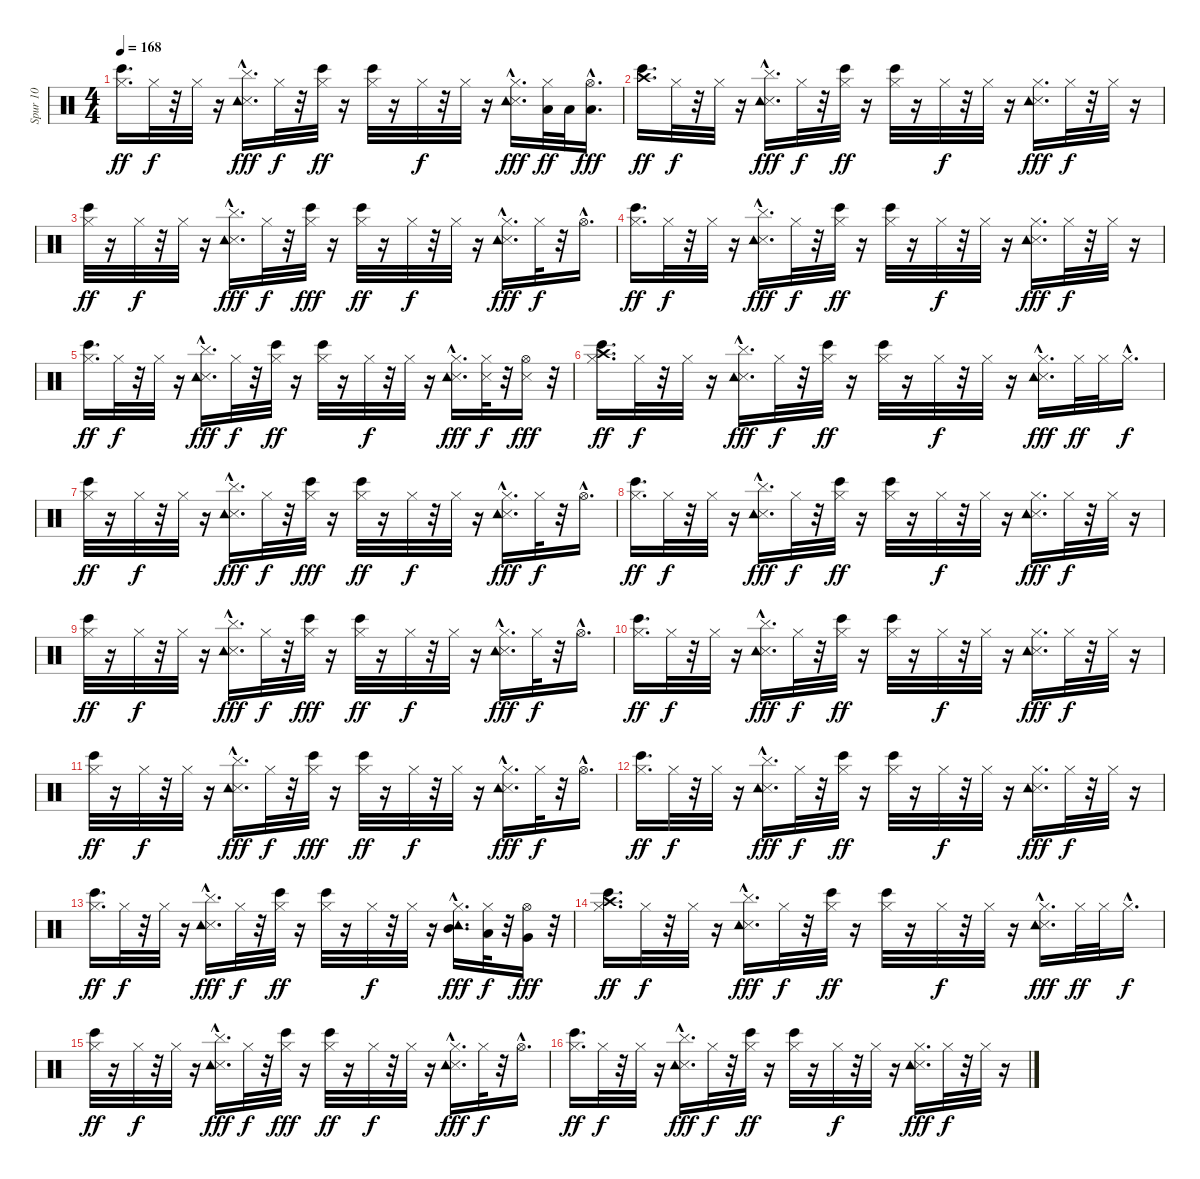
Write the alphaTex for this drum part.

\track ("Spur 10" "Spur 10") {instrument percussion}
\staff {score}
\articulation defaults
\ts (4 4)
\tempo 168
\clef neutral
\ks c
("Hi-Hat (closed)" "Bongo High (hit)").16{d dy ff} "Hi-Hat (closed)".32{dy f} r.32 "Hi-Hat (closed)".32 r.16 ("Cymbal (hit)"{hac} "Metronome (hit)" "Tambourine (hit)").16{d dy fff} "Hi-Hat (closed)".32{dy f} r.32 ("Hi-Hat (closed)" "Bongo High (hit)").32{dy ff} r.16 ("Hi-Hat (closed)" "Bongo High (hit)").32 r.16 "Hi-Hat (closed)".32{dy f} r.32 "Hi-Hat (closed)".32 r.16 ("Hi-Hat (closed)" "Metronome (hit)"{hac} "Tambourine (hit)").16{d dy fff} ("Low Tom (hit)" "Hi-Hat (closed)").32{dy ff} "Low Tom (hit)".32 ("Low Tom (hit)"{hac} "Hi-Hat (open)"{hac}).16{d dy fff} |
("Crash high (hit)" "Bongo High (hit)").16{d dy ff} "Hi-Hat (closed)".32{dy f} r.32 "Hi-Hat (closed)".32 r.16 ("Cymbal (hit)"{hac} "Metronome (hit)" "Tambourine (hit)").16{d dy fff} "Hi-Hat (closed)".32{dy f} r.32 ("Hi-Hat (closed)" "Bongo High (hit)").32{dy ff} r.16 ("Hi-Hat (closed)" "Bongo High (hit)").32 r.16 "Hi-Hat (closed)".32{dy f} r.32 "Hi-Hat (closed)".32 r.16 ("Hi-Hat (closed)" "Metronome (hit)" "Tambourine (hit)").16{d dy fff} "Hi-Hat (closed)".32{dy f} r.32 "Hi-Hat (closed)".32 r.16 |
("Hi-Hat (closed)" "Bongo High (hit)").32{dy ff} r.16 "Hi-Hat (closed)".32{dy f} r.32 "Hi-Hat (closed)".32 r.16 ("Cymbal (hit)"{hac} "Metronome (hit)" "Tambourine (hit)").16{d dy fff} "Hi-Hat (closed)".32{dy f} r.32 ("Hi-Hat (closed)" "Bongo High (hit)").32{dy fff} r.16 ("Hi-Hat (closed)" "Bongo High (hit)").32{dy ff} r.16 "Hi-Hat (closed)".32{dy f} r.32 "Hi-Hat (closed)".32 r.16 ("Hi-Hat (closed)" "Metronome (hit)"{hac} "Tambourine (hit)").16{d dy fff} "Hi-Hat (closed)".32{dy f} r.32 "Hi-Hat (open)"{hac}.16{d} |
("Hi-Hat (closed)" "Bongo High (hit)").16{d dy ff} "Hi-Hat (closed)".32{dy f} r.32 "Hi-Hat (closed)".32 r.16 ("Cymbal (hit)"{hac} "Metronome (hit)" "Tambourine (hit)").16{d dy fff} "Hi-Hat (closed)".32{dy f} r.32 ("Hi-Hat (closed)" "Bongo High (hit)").32{dy ff} r.16 ("Hi-Hat (closed)" "Bongo High (hit)").32 r.16 "Hi-Hat (closed)".32{dy f} r.32 "Hi-Hat (closed)".32 r.16 ("Hi-Hat (closed)" "Metronome (hit)" "Tambourine (hit)").16{d dy fff} "Hi-Hat (closed)".32{dy f} r.32 "Hi-Hat (closed)".32 r.16 |
("Hi-Hat (closed)" "Bongo High (hit)").16{d dy ff} "Hi-Hat (closed)".32{dy f} r.32 "Hi-Hat (closed)".32 r.16 ("Cymbal (hit)"{hac} "Metronome (hit)" "Tambourine (hit)").16{d dy fff} "Hi-Hat (closed)".32{dy f} r.32 ("Hi-Hat (closed)" "Bongo High (hit)").32{dy ff} r.16 ("Hi-Hat (closed)" "Bongo High (hit)").32 r.16 "Hi-Hat (closed)".32{dy f} r.32 "Hi-Hat (closed)".32 r.16 ("Hi-Hat (closed)" "Metronome (hit)"{hac} "Tambourine (hit)").16{d dy fff} ("Metronome (hit)" "Hi-Hat (closed)").32{dy f} r.32 ("Metronome (hit)" "Hi-Hat (open)").16{dy fff} r.32 |
("Crash high (hit)" "Hi-Hat (closed)" "Bongo High (hit)").16{d dy ff} "Hi-Hat (closed)".32{dy f} r.32 "Hi-Hat (closed)".32 r.16 ("Cymbal (hit)"{hac} "Metronome (hit)" "Tambourine (hit)").16{d dy fff} "Hi-Hat (closed)".32{dy f} r.32 ("Hi-Hat (closed)" "Bongo High (hit)").32{dy ff} r.16 ("Hi-Hat (closed)" "Bongo High (hit)").32 r.16 "Hi-Hat (closed)".32{dy f} r.32 "Hi-Hat (closed)".32 r.16 ("Hi-Hat (closed)"{hac} "Metronome (hit)" "Tambourine (hit)").16{d dy fff} "Hi-Hat (closed)".32{dy ff} "Hi-Hat (closed)".32 "Hi-Hat (closed)"{hac}.16{d dy f} |
("Hi-Hat (closed)" "Bongo High (hit)").32{dy ff} r.16 "Hi-Hat (closed)".32{dy f} r.32 "Hi-Hat (closed)".32 r.16 ("Cymbal (hit)"{hac} "Metronome (hit)" "Tambourine (hit)").16{d dy fff} "Hi-Hat (closed)".32{dy f} r.32 ("Hi-Hat (closed)" "Bongo High (hit)").32{dy fff} r.16 ("Hi-Hat (closed)" "Bongo High (hit)").32{dy ff} r.16 "Hi-Hat (closed)".32{dy f} r.32 "Hi-Hat (closed)".32 r.16 ("Hi-Hat (closed)" "Metronome (hit)"{hac} "Tambourine (hit)").16{d dy fff} "Hi-Hat (closed)".32{dy f} r.32 "Hi-Hat (open)"{hac}.16{d} |
("Hi-Hat (closed)" "Bongo High (hit)").16{d dy ff} "Hi-Hat (closed)".32{dy f} r.32 "Hi-Hat (closed)".32 r.16 ("Cymbal (hit)"{hac} "Metronome (hit)" "Tambourine (hit)").16{d dy fff} "Hi-Hat (closed)".32{dy f} r.32 ("Hi-Hat (closed)" "Bongo High (hit)").32{dy ff} r.16 ("Hi-Hat (closed)" "Bongo High (hit)").32 r.16 "Hi-Hat (closed)".32{dy f} r.32 "Hi-Hat (closed)".32 r.16 ("Hi-Hat (closed)" "Metronome (hit)" "Tambourine (hit)").16{d dy fff} "Hi-Hat (closed)".32{dy f} r.32 "Hi-Hat (closed)".32 r.16 |
("Hi-Hat (closed)" "Bongo High (hit)").32{dy ff} r.16 "Hi-Hat (closed)".32{dy f} r.32 "Hi-Hat (closed)".32 r.16 ("Cymbal (hit)"{hac} "Metronome (hit)" "Tambourine (hit)").16{d dy fff} "Hi-Hat (closed)".32{dy f} r.32 ("Hi-Hat (closed)" "Bongo High (hit)").32{dy fff} r.16 ("Hi-Hat (closed)" "Bongo High (hit)").32{dy ff} r.16 "Hi-Hat (closed)".32{dy f} r.32 "Hi-Hat (closed)".32 r.16 ("Hi-Hat (closed)" "Metronome (hit)"{hac} "Tambourine (hit)").16{d dy fff} "Hi-Hat (closed)".32{dy f} r.32 "Hi-Hat (open)"{hac}.16{d} |
("Hi-Hat (closed)" "Bongo High (hit)").16{d dy ff} "Hi-Hat (closed)".32{dy f} r.32 "Hi-Hat (closed)".32 r.16 ("Cymbal (hit)"{hac} "Metronome (hit)" "Tambourine (hit)").16{d dy fff} "Hi-Hat (closed)".32{dy f} r.32 ("Hi-Hat (closed)" "Bongo High (hit)").32{dy ff} r.16 ("Hi-Hat (closed)" "Bongo High (hit)").32 r.16 "Hi-Hat (closed)".32{dy f} r.32 "Hi-Hat (closed)".32 r.16 ("Hi-Hat (closed)" "Metronome (hit)" "Tambourine (hit)").16{d dy fff} "Hi-Hat (closed)".32{dy f} r.32 "Hi-Hat (closed)".32 r.16 |
("Hi-Hat (closed)" "Bongo High (hit)").32{dy ff} r.16 "Hi-Hat (closed)".32{dy f} r.32 "Hi-Hat (closed)".32 r.16 ("Cymbal (hit)"{hac} "Metronome (hit)" "Tambourine (hit)").16{d dy fff} "Hi-Hat (closed)".32{dy f} r.32 ("Hi-Hat (closed)" "Bongo High (hit)").32{dy fff} r.16 ("Hi-Hat (closed)" "Bongo High (hit)").32{dy ff} r.16 "Hi-Hat (closed)".32{dy f} r.32 "Hi-Hat (closed)".32 r.16 ("Hi-Hat (closed)" "Metronome (hit)"{hac} "Tambourine (hit)").16{d dy fff} "Hi-Hat (closed)".32{dy f} r.32 "Hi-Hat (open)"{hac}.16{d} |
("Hi-Hat (closed)" "Bongo High (hit)").16{d dy ff} "Hi-Hat (closed)".32{dy f} r.32 "Hi-Hat (closed)".32 r.16 ("Cymbal (hit)"{hac} "Metronome (hit)" "Tambourine (hit)").16{d dy fff} "Hi-Hat (closed)".32{dy f} r.32 ("Hi-Hat (closed)" "Bongo High (hit)").32{dy ff} r.16 ("Hi-Hat (closed)" "Bongo High (hit)").32 r.16 "Hi-Hat (closed)".32{dy f} r.32 "Hi-Hat (closed)".32 r.16 ("Hi-Hat (closed)" "Metronome (hit)" "Tambourine (hit)").16{d dy fff} "Hi-Hat (closed)".32{dy f} r.32 "Hi-Hat (closed)".32 r.16 |
("Hi-Hat (closed)" "Bongo High (hit)").16{d dy ff} "Hi-Hat (closed)".32{dy f} r.32 "Hi-Hat (closed)".32 r.16 ("Cymbal (hit)"{hac} "Metronome (hit)" "Tambourine (hit)").16{d dy fff} "Hi-Hat (closed)".32{dy f} r.32 ("Hi-Hat (closed)" "Bongo High (hit)").32{dy ff} r.16 ("Hi-Hat (closed)" "Bongo High (hit)").32 r.16 "Hi-Hat (closed)".32{dy f} r.32 "Hi-Hat (closed)".32 r.16 ("Hi-Hat (closed)" "Mid Tom (hit)"{hac} "Tambourine (hit)").16{d dy fff} ("Low Tom (hit)" "Hi-Hat (closed)").32{dy f} r.32 ("Very Low Tom (hit)" "Hi-Hat (open)").16{dy fff} r.32 |
("Crash high (hit)" "Hi-Hat (closed)" "Bongo High (hit)").16{d dy ff} "Hi-Hat (closed)".32{dy f} r.32 "Hi-Hat (closed)".32 r.16 ("Cymbal (hit)"{hac} "Metronome (hit)" "Tambourine (hit)").16{d dy fff} "Hi-Hat (closed)".32{dy f} r.32 ("Hi-Hat (closed)" "Bongo High (hit)").32{dy ff} r.16 ("Hi-Hat (closed)" "Bongo High (hit)").32 r.16 "Hi-Hat (closed)".32{dy f} r.32 "Hi-Hat (closed)".32 r.16 ("Hi-Hat (closed)"{hac} "Metronome (hit)" "Tambourine (hit)").16{d dy fff} "Hi-Hat (closed)".32{dy ff} "Hi-Hat (closed)".32 "Hi-Hat (closed)"{hac}.16{d dy f} |
("Hi-Hat (closed)" "Bongo High (hit)").32{dy ff} r.16 "Hi-Hat (closed)".32{dy f} r.32 "Hi-Hat (closed)".32 r.16 ("Cymbal (hit)"{hac} "Metronome (hit)" "Tambourine (hit)").16{d dy fff} "Hi-Hat (closed)".32{dy f} r.32 ("Hi-Hat (closed)" "Bongo High (hit)").32{dy fff} r.16 ("Hi-Hat (closed)" "Bongo High (hit)").32{dy ff} r.16 "Hi-Hat (closed)".32{dy f} r.32 "Hi-Hat (closed)".32 r.16 ("Hi-Hat (closed)" "Metronome (hit)"{hac} "Tambourine (hit)").16{d dy fff} "Hi-Hat (closed)".32{dy f} r.32 "Hi-Hat (open)"{hac}.16{d} |
("Hi-Hat (closed)" "Bongo High (hit)").16{d dy ff} "Hi-Hat (closed)".32{dy f} r.32 "Hi-Hat (closed)".32 r.16 ("Cymbal (hit)"{hac} "Metronome (hit)" "Tambourine (hit)").16{d dy fff} "Hi-Hat (closed)".32{dy f} r.32 ("Hi-Hat (closed)" "Bongo High (hit)").32{dy ff} r.16 ("Hi-Hat (closed)" "Bongo High (hit)").32 r.16 "Hi-Hat (closed)".32{dy f} r.32 "Hi-Hat (closed)".32 r.16 ("Hi-Hat (closed)" "Metronome (hit)" "Tambourine (hit)").16{d dy fff} "Hi-Hat (closed)".32{dy f} r.32 "Hi-Hat (closed)".32 r.16
